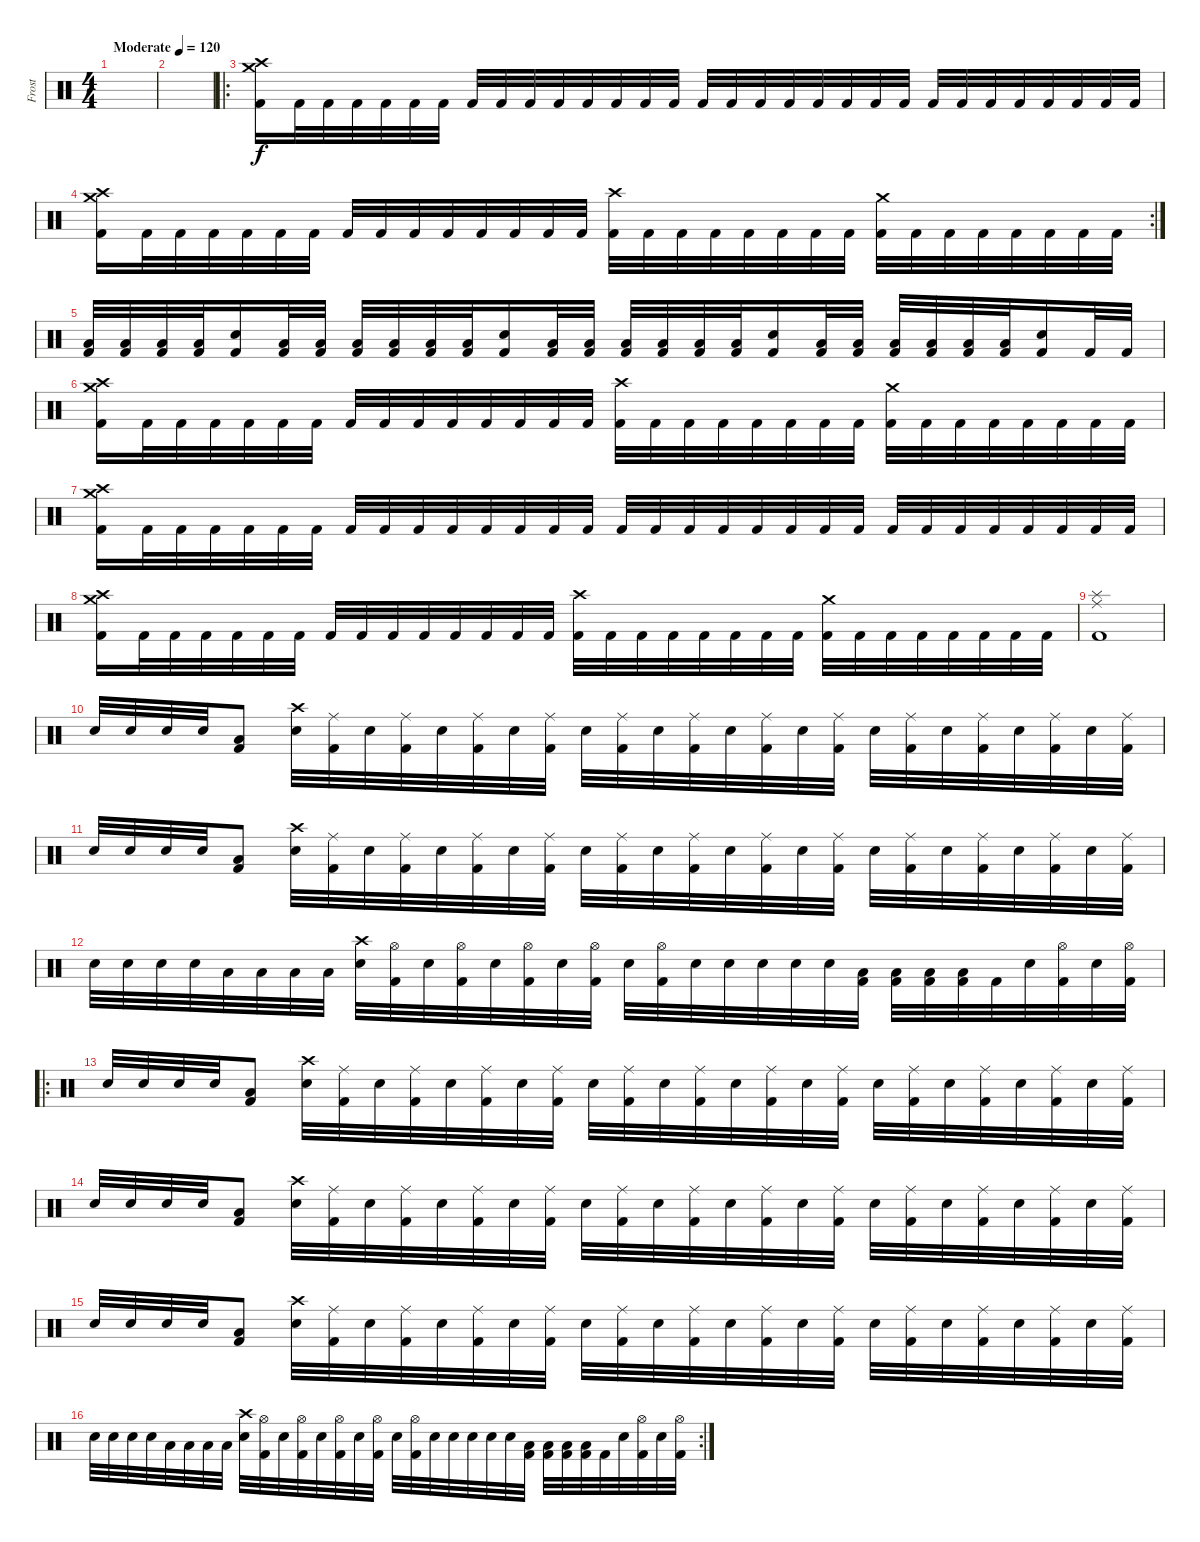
\track ("Frost" "Frost") {instrument percussion}
\staff {score}
\articulation defaults
\ts (4 4)
\tempo (120 "Moderate")
\clef neutral
\ks c
|
|
\ro
("Crash high (hit)" "Crash medium (hit)" "Kick (hit) 2").16 "Kick (hit) 2".32 "Kick (hit) 2".32 "Kick (hit) 2".32 "Kick (hit) 2".32 "Kick (hit) 2".32 "Kick (hit) 2".32 "Kick (hit) 2".32 "Kick (hit) 2".32 "Kick (hit) 2".32 "Kick (hit) 2".32 "Kick (hit) 2".32 "Kick (hit) 2".32 "Kick (hit) 2".32 "Kick (hit) 2".32 "Kick (hit) 2".32 "Kick (hit) 2".32 "Kick (hit) 2".32 "Kick (hit) 2".32 "Kick (hit) 2".32 "Kick (hit) 2".32 "Kick (hit) 2".32 "Kick (hit) 2".32 "Kick (hit) 2".32 "Kick (hit) 2".32 "Kick (hit) 2".32 "Kick (hit) 2".32 "Kick (hit) 2".32 "Kick (hit) 2".32 "Kick (hit) 2".32 "Kick (hit) 2".32 |
\rc 2
("Crash high (hit)" "Crash medium (hit)" "Kick (hit) 2").16 "Kick (hit) 2".32 "Kick (hit) 2".32 "Kick (hit) 2".32 "Kick (hit) 2".32 "Kick (hit) 2".32 "Kick (hit) 2".32 "Kick (hit) 2".32 "Kick (hit) 2".32 "Kick (hit) 2".32 "Kick (hit) 2".32 "Kick (hit) 2".32 "Kick (hit) 2".32 "Kick (hit) 2".32 "Kick (hit) 2".32 ("Crash high (hit)" "Kick (hit) 2").32 "Kick (hit) 2".32 "Kick (hit) 2".32 "Kick (hit) 2".32 "Kick (hit) 2".32 "Kick (hit) 2".32 "Kick (hit) 2".32 "Kick (hit) 2".32 ("Crash medium (hit)" "Kick (hit) 2").32 "Kick (hit) 2".32 "Kick (hit) 2".32 "Kick (hit) 2".32 "Kick (hit) 2".32 "Kick (hit) 2".32 "Kick (hit) 2".32 "Kick (hit) 2".32 |
("Low Tom (hit)" "Kick (hit) 2").32 ("Low Tom (hit)" "Kick (hit) 2").32 ("Low Tom (hit)" "Kick (hit) 2").32 ("Low Tom (hit)" "Kick (hit) 2").32 ("Snare (hit) 2" "Kick (hit) 2").16 ("Low Tom (hit)" "Kick (hit) 2").32 ("Low Tom (hit)" "Kick (hit) 2").32 ("Low Tom (hit)" "Kick (hit) 2").32 ("Low Tom (hit)" "Kick (hit) 2").32 ("Low Tom (hit)" "Kick (hit) 2").32 ("Low Tom (hit)" "Kick (hit) 2").32 ("Snare (hit) 2" "Kick (hit) 2").16 ("Low Tom (hit)" "Kick (hit) 2").32 ("Low Tom (hit)" "Kick (hit) 2").32 ("Low Tom (hit)" "Kick (hit) 2").32 ("Low Tom (hit)" "Kick (hit) 2").32 ("Low Tom (hit)" "Kick (hit) 2").32 ("Low Tom (hit)" "Kick (hit) 2").32 ("Snare (hit) 2" "Kick (hit) 2").16 ("Low Tom (hit)" "Kick (hit) 2").32 ("Low Tom (hit)" "Kick (hit) 2").32 ("Low Tom (hit)" "Kick (hit) 2").32 ("Low Tom (hit)" "Kick (hit) 2").32 ("Low Tom (hit)" "Kick (hit) 2").32 ("Low Tom (hit)" "Kick (hit) 2").32 ("Snare (hit) 2" "Kick (hit) 2").16 "Kick (hit) 2".32 "Kick (hit) 2".32 |
("Crash high (hit)" "Crash medium (hit)" "Kick (hit) 2").16 "Kick (hit) 2".32 "Kick (hit) 2".32 "Kick (hit) 2".32 "Kick (hit) 2".32 "Kick (hit) 2".32 "Kick (hit) 2".32 "Kick (hit) 2".32 "Kick (hit) 2".32 "Kick (hit) 2".32 "Kick (hit) 2".32 "Kick (hit) 2".32 "Kick (hit) 2".32 "Kick (hit) 2".32 "Kick (hit) 2".32 ("Crash high (hit)" "Kick (hit) 2").32 "Kick (hit) 2".32 "Kick (hit) 2".32 "Kick (hit) 2".32 "Kick (hit) 2".32 "Kick (hit) 2".32 "Kick (hit) 2".32 "Kick (hit) 2".32 ("Crash medium (hit)" "Kick (hit) 2").32 "Kick (hit) 2".32 "Kick (hit) 2".32 "Kick (hit) 2".32 "Kick (hit) 2".32 "Kick (hit) 2".32 "Kick (hit) 2".32 "Kick (hit) 2".32 |
("Crash high (hit)" "Crash medium (hit)" "Kick (hit) 2").16 "Kick (hit) 2".32 "Kick (hit) 2".32 "Kick (hit) 2".32 "Kick (hit) 2".32 "Kick (hit) 2".32 "Kick (hit) 2".32 "Kick (hit) 2".32 "Kick (hit) 2".32 "Kick (hit) 2".32 "Kick (hit) 2".32 "Kick (hit) 2".32 "Kick (hit) 2".32 "Kick (hit) 2".32 "Kick (hit) 2".32 "Kick (hit) 2".32 "Kick (hit) 2".32 "Kick (hit) 2".32 "Kick (hit) 2".32 "Kick (hit) 2".32 "Kick (hit) 2".32 "Kick (hit) 2".32 "Kick (hit) 2".32 "Kick (hit) 2".32 "Kick (hit) 2".32 "Kick (hit) 2".32 "Kick (hit) 2".32 "Kick (hit) 2".32 "Kick (hit) 2".32 "Kick (hit) 2".32 "Kick (hit) 2".32 |
("Crash high (hit)" "Crash medium (hit)" "Kick (hit) 2").16 "Kick (hit) 2".32 "Kick (hit) 2".32 "Kick (hit) 2".32 "Kick (hit) 2".32 "Kick (hit) 2".32 "Kick (hit) 2".32 "Kick (hit) 2".32 "Kick (hit) 2".32 "Kick (hit) 2".32 "Kick (hit) 2".32 "Kick (hit) 2".32 "Kick (hit) 2".32 "Kick (hit) 2".32 "Kick (hit) 2".32 ("Crash high (hit)" "Kick (hit) 2").32 "Kick (hit) 2".32 "Kick (hit) 2".32 "Kick (hit) 2".32 "Kick (hit) 2".32 "Kick (hit) 2".32 "Kick (hit) 2".32 "Kick (hit) 2".32 ("Crash medium (hit)" "Kick (hit) 2").32 "Kick (hit) 2".32 "Kick (hit) 2".32 "Kick (hit) 2".32 "Kick (hit) 2".32 "Kick (hit) 2".32 "Kick (hit) 2".32 "Kick (hit) 2".32 |
("Ride (middle)" "Splash (hit)" "Kick (hit) 2").1 |
"Snare (hit) 2".32 "Snare (hit) 2".32 "Snare (hit) 2".32 "Snare (hit) 2".32 ("Low Tom (hit)" "Kick (hit) 2").8 ("Crash high (hit)" "Snare (hit) 2").32 ("Ride (middle)" "Kick (hit) 2").32 "Snare (hit) 2".32 ("Ride (middle)" "Kick (hit) 2").32 "Snare (hit) 2".32 ("Ride (middle)" "Kick (hit) 2").32 "Snare (hit) 2".32 ("Ride (middle)" "Kick (hit) 2").32 "Snare (hit) 2".32 ("Ride (middle)" "Kick (hit) 2").32 "Snare (hit) 2".32 ("Ride (middle)" "Kick (hit) 2").32 "Snare (hit) 2".32 ("Ride (middle)" "Kick (hit) 2").32 "Snare (hit) 2".32 ("Ride (middle)" "Kick (hit) 2").32 "Snare (hit) 2".32 ("Ride (middle)" "Kick (hit) 2").32 "Snare (hit) 2".32 ("Ride (middle)" "Kick (hit) 2").32 "Snare (hit) 2".32 ("Ride (middle)" "Kick (hit) 2").32 "Snare (hit) 2".32 ("Ride (middle)" "Kick (hit) 2").32 |
"Snare (hit) 2".32 "Snare (hit) 2".32 "Snare (hit) 2".32 "Snare (hit) 2".32 ("Low Tom (hit)" "Kick (hit) 2").8 ("Crash high (hit)" "Snare (hit) 2").32 ("Ride (middle)" "Kick (hit) 2").32 "Snare (hit) 2".32 ("Ride (middle)" "Kick (hit) 2").32 "Snare (hit) 2".32 ("Ride (middle)" "Kick (hit) 2").32 "Snare (hit) 2".32 ("Ride (middle)" "Kick (hit) 2").32 "Snare (hit) 2".32 ("Ride (middle)" "Kick (hit) 2").32 "Snare (hit) 2".32 ("Ride (middle)" "Kick (hit) 2").32 "Snare (hit) 2".32 ("Ride (middle)" "Kick (hit) 2").32 "Snare (hit) 2".32 ("Ride (middle)" "Kick (hit) 2").32 "Snare (hit) 2".32 ("Ride (middle)" "Kick (hit) 2").32 "Snare (hit) 2".32 ("Ride (middle)" "Kick (hit) 2").32 "Snare (hit) 2".32 ("Ride (middle)" "Kick (hit) 2").32 "Snare (hit) 2".32 ("Ride (middle)" "Kick (hit) 2").32 |
"Snare (hit) 2".32 "Snare (hit) 2".32 "Snare (hit) 2".32 "Snare (hit) 2".32 "Low Tom (hit)".32 "Low Tom (hit)".32 "Low Tom (hit)".32 "Low Tom (hit)".32 ("Crash high (hit)" "Snare (hit) 2").32 ("Hi-Hat (open)" "Kick (hit) 2").32 "Snare (hit) 2".32 ("Hi-Hat (open)" "Kick (hit) 2").32 "Snare (hit) 2".32 ("Hi-Hat (open)" "Kick (hit) 2").32 "Snare (hit) 2".32 ("Hi-Hat (open)" "Kick (hit) 2").32 "Snare (hit) 2".32 ("Hi-Hat (open)" "Kick (hit) 2").32 "Snare (hit) 2".32 "Snare (hit) 2".32 "Snare (hit) 2".32 "Snare (hit) 2".32 "Snare (hit) 2".32 ("Low Tom (hit)" "Kick (hit) 2").32 ("Low Tom (hit)" "Kick (hit) 2").32 ("Low Tom (hit)" "Kick (hit) 2").32 ("Low Tom (hit)" "Kick (hit) 2").32 "Kick (hit) 2".32 "Snare (hit) 2".32 ("Hi-Hat (open)" "Kick (hit) 2").32 "Snare (hit) 2".32 ("Hi-Hat (open)" "Kick (hit) 2").32 |
\ro "Snare (hit) 2".32 "Snare (hit) 2".32 "Snare (hit) 2".32 "Snare (hit) 2".32
("Low Tom (hit)" "Kick (hit) 2").8 ("Crash high (hit)" "Snare (hit) 2").32 ("Ride (middle)" "Kick (hit) 2").32 "Snare (hit) 2".32 ("Ride (middle)" "Kick (hit) 2").32 "Snare (hit) 2".32 ("Ride (middle)" "Kick (hit) 2").32 "Snare (hit) 2".32 ("Ride (middle)" "Kick (hit) 2").32 "Snare (hit) 2".32 ("Ride (middle)" "Kick (hit) 2").32 "Snare (hit) 2".32 ("Ride (middle)" "Kick (hit) 2").32 "Snare (hit) 2".32 ("Ride (middle)" "Kick (hit) 2").32 "Snare (hit) 2".32 ("Ride (middle)" "Kick (hit) 2").32 "Snare (hit) 2".32 ("Ride (middle)" "Kick (hit) 2").32 "Snare (hit) 2".32 ("Ride (middle)" "Kick (hit) 2").32 "Snare (hit) 2".32 ("Ride (middle)" "Kick (hit) 2").32 "Snare (hit) 2".32 ("Ride (middle)" "Kick (hit) 2").32 |
"Snare (hit) 2".32 "Snare (hit) 2".32 "Snare (hit) 2".32 "Snare (hit) 2".32 ("Low Tom (hit)" "Kick (hit) 2").8 ("Crash high (hit)" "Snare (hit) 2").32 ("Ride (middle)" "Kick (hit) 2").32 "Snare (hit) 2".32 ("Ride (middle)" "Kick (hit) 2").32 "Snare (hit) 2".32 ("Ride (middle)" "Kick (hit) 2").32 "Snare (hit) 2".32 ("Ride (middle)" "Kick (hit) 2").32 "Snare (hit) 2".32 ("Ride (middle)" "Kick (hit) 2").32 "Snare (hit) 2".32 ("Ride (middle)" "Kick (hit) 2").32 "Snare (hit) 2".32 ("Ride (middle)" "Kick (hit) 2").32 "Snare (hit) 2".32 ("Ride (middle)" "Kick (hit) 2").32 "Snare (hit) 2".32 ("Ride (middle)" "Kick (hit) 2").32 "Snare (hit) 2".32 ("Ride (middle)" "Kick (hit) 2").32 "Snare (hit) 2".32 ("Ride (middle)" "Kick (hit) 2").32 "Snare (hit) 2".32 ("Ride (middle)" "Kick (hit) 2").32 |
"Snare (hit) 2".32 "Snare (hit) 2".32 "Snare (hit) 2".32 "Snare (hit) 2".32 ("Low Tom (hit)" "Kick (hit) 2").8 ("Crash high (hit)" "Snare (hit) 2").32 ("Ride (middle)" "Kick (hit) 2").32 "Snare (hit) 2".32 ("Ride (middle)" "Kick (hit) 2").32 "Snare (hit) 2".32 ("Ride (middle)" "Kick (hit) 2").32 "Snare (hit) 2".32 ("Ride (middle)" "Kick (hit) 2").32 "Snare (hit) 2".32 ("Ride (middle)" "Kick (hit) 2").32 "Snare (hit) 2".32 ("Ride (middle)" "Kick (hit) 2").32 "Snare (hit) 2".32 ("Ride (middle)" "Kick (hit) 2").32 "Snare (hit) 2".32 ("Ride (middle)" "Kick (hit) 2").32 "Snare (hit) 2".32 ("Ride (middle)" "Kick (hit) 2").32 "Snare (hit) 2".32 ("Ride (middle)" "Kick (hit) 2").32 "Snare (hit) 2".32 ("Ride (middle)" "Kick (hit) 2").32 "Snare (hit) 2".32 ("Ride (middle)" "Kick (hit) 2").32 |
\rc 2 "Snare (hit) 2".32 "Snare (hit) 2".32 "Snare (hit) 2".32 "Snare (hit) 2".32 "Low Tom (hit)".32 "Low Tom (hit)".32 "Low Tom (hit)".32 "Low Tom (hit)".32
("Crash high (hit)" "Snare (hit) 2").32 ("Hi-Hat (open)" "Kick (hit) 2").32 "Snare (hit) 2".32 ("Hi-Hat (open)" "Kick (hit) 2").32 "Snare (hit) 2".32 ("Hi-Hat (open)" "Kick (hit) 2").32 "Snare (hit) 2".32 ("Hi-Hat (open)" "Kick (hit) 2").32 "Snare (hit) 2".32 ("Hi-Hat (open)" "Kick (hit) 2").32 "Snare (hit) 2".32 "Snare (hit) 2".32 "Snare (hit) 2".32 "Snare (hit) 2".32 "Snare (hit) 2".32 ("Low Tom (hit)" "Kick (hit) 2").32 ("Low Tom (hit)" "Kick (hit) 2").32 ("Low Tom (hit)" "Kick (hit) 2").32 ("Low Tom (hit)" "Kick (hit) 2").32 "Kick (hit) 2".32 "Snare (hit) 2".32 ("Hi-Hat (open)" "Kick (hit) 2").32 "Snare (hit) 2".32 ("Hi-Hat (open)" "Kick (hit) 2").32
